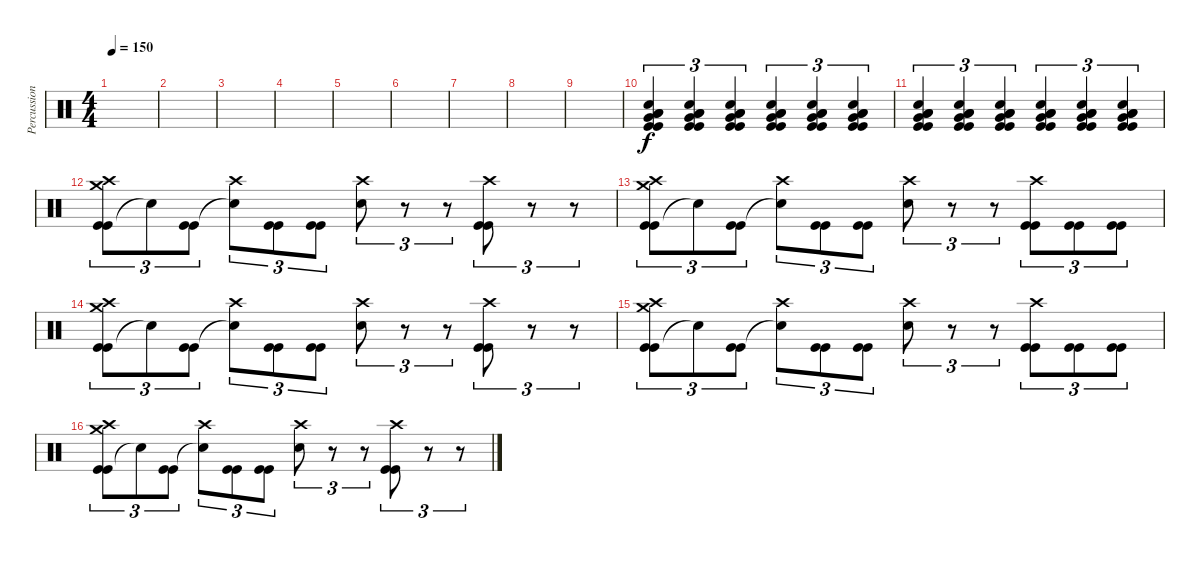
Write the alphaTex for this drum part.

\track ("Percussion" "Percussion") {instrument percussion}
\staff {score}
\articulation defaults
\ts (4 4)
\tempo 150
\clef neutral
\ks c
|
|
|
|
|
|
|
|
|
("Very Low Tom (hit)" "Snare (hit) 2" "Kick (hit)" "Kick (hit)" "Low Floor Tom (hit)" "Low Floor Tom (hit)").4{tu (3 2)} ("Very Low Tom (hit)" "Snare (hit) 2" "Kick (hit)" "Kick (hit)" "Low Floor Tom (hit)" "Low Floor Tom (hit)").4{tu (3 2)} ("Very Low Tom (hit)" "Snare (hit) 2" "Kick (hit)" "Kick (hit)" "Low Floor Tom (hit)" "Low Floor Tom (hit)").4{tu (3 2)} ("Very Low Tom (hit)" "Snare (hit) 2" "Kick (hit)" "Kick (hit)" "Low Floor Tom (hit)" "Low Floor Tom (hit)").4{tu (3 2)} ("Very Low Tom (hit)" "Snare (hit) 2" "Kick (hit)" "Kick (hit)" "Low Floor Tom (hit)" "Low Floor Tom (hit)").4{tu (3 2)} ("Very Low Tom (hit)" "Snare (hit) 2" "Kick (hit)" "Kick (hit)" "Low Floor Tom (hit)" "Low Floor Tom (hit)").4{tu (3 2)} |
("Very Low Tom (hit)" "Snare (hit) 2" "Kick (hit)" "Kick (hit)" "Low Floor Tom (hit)" "Low Floor Tom (hit)").4{tu (3 2)} ("Very Low Tom (hit)" "Snare (hit) 2" "Kick (hit)" "Kick (hit)" "Low Floor Tom (hit)" "Low Floor Tom (hit)").4{tu (3 2)} ("Very Low Tom (hit)" "Snare (hit) 2" "Kick (hit)" "Kick (hit)" "Low Floor Tom (hit)" "Low Floor Tom (hit)").4{tu (3 2)} ("Very Low Tom (hit)" "Snare (hit) 2" "Kick (hit)" "Kick (hit)" "Low Floor Tom (hit)" "Low Floor Tom (hit)").4{tu (3 2)} ("Very Low Tom (hit)" "Snare (hit) 2" "Kick (hit)" "Kick (hit)" "Low Floor Tom (hit)" "Low Floor Tom (hit)").4{tu (3 2)} ("Very Low Tom (hit)" "Snare (hit) 2" "Kick (hit)" "Kick (hit)" "Low Floor Tom (hit)" "Low Floor Tom (hit)").4{tu (3 2)} |
("Kick (hit)" "Crash medium (hit)" "Crash high (hit)" "Kick (hit)").8{tu (3 2)} "Snare (hit)"{t}.8{tu (3 2)} ("Kick (hit)" "Kick (hit)").8{tu (3 2)} ("Crash high (hit)" "Snare (hit)"{t}).8{tu (3 2)} ("Kick (hit)" "Kick (hit)").8{tu (3 2)} ("Kick (hit)" "Kick (hit)").8{tu (3 2)} ("Crash high (hit)" "Snare (hit) 2").8{tu (3 2)} r.8{tu (3 2)} r.8{tu (3 2)} ("Crash high (hit)" "Kick (hit)" "Kick (hit)").8{tu (3 2)} r.8{tu (3 2)} r.8{tu (3 2)} |
("Kick (hit)" "Crash medium (hit)" "Crash high (hit)" "Kick (hit)").8{tu (3 2)} "Snare (hit)"{t}.8{tu (3 2)} ("Kick (hit)" "Kick (hit)").8{tu (3 2)} ("Crash high (hit)" "Snare (hit)"{t}).8{tu (3 2)} ("Kick (hit)" "Kick (hit)").8{tu (3 2)} ("Kick (hit)" "Kick (hit)").8{tu (3 2)} ("Crash high (hit)" "Snare (hit) 2").8{tu (3 2)} r.8{tu (3 2)} r.8{tu (3 2)} ("Crash high (hit)" "Kick (hit)" "Kick (hit)").8{tu (3 2)} ("Kick (hit)" "Kick (hit)").8{tu (3 2)} ("Kick (hit)" "Kick (hit)").8{tu (3 2)} |
("Kick (hit)" "Crash medium (hit)" "Crash high (hit)" "Kick (hit)").8{tu (3 2)} "Snare (hit)"{t}.8{tu (3 2)} ("Kick (hit)" "Kick (hit)").8{tu (3 2)} ("Crash high (hit)" "Snare (hit)"{t}).8{tu (3 2)} ("Kick (hit)" "Kick (hit)").8{tu (3 2)} ("Kick (hit)" "Kick (hit)").8{tu (3 2)} ("Crash high (hit)" "Snare (hit) 2").8{tu (3 2)} r.8{tu (3 2)} r.8{tu (3 2)} ("Crash high (hit)" "Kick (hit)" "Kick (hit)").8{tu (3 2)} r.8{tu (3 2)} r.8{tu (3 2)} |
("Kick (hit)" "Crash medium (hit)" "Crash high (hit)" "Kick (hit)").8{tu (3 2)} "Snare (hit)"{t}.8{tu (3 2)} ("Kick (hit)" "Kick (hit)").8{tu (3 2)} ("Crash high (hit)" "Snare (hit)"{t}).8{tu (3 2)} ("Kick (hit)" "Kick (hit)").8{tu (3 2)} ("Kick (hit)" "Kick (hit)").8{tu (3 2)} ("Crash high (hit)" "Snare (hit) 2").8{tu (3 2)} r.8{tu (3 2)} r.8{tu (3 2)} ("Crash high (hit)" "Kick (hit)" "Kick (hit)").8{tu (3 2)} ("Kick (hit)" "Kick (hit)").8{tu (3 2)} ("Kick (hit)" "Kick (hit)").8{tu (3 2)} |
("Kick (hit)" "Crash medium (hit)" "Crash high (hit)" "Kick (hit)").8{tu (3 2)} "Snare (hit)"{t}.8{tu (3 2)} ("Kick (hit)" "Kick (hit)").8{tu (3 2)} ("Crash high (hit)" "Snare (hit)"{t}).8{tu (3 2)} ("Kick (hit)" "Kick (hit)").8{tu (3 2)} ("Kick (hit)" "Kick (hit)").8{tu (3 2)} ("Crash high (hit)" "Snare (hit) 2").8{tu (3 2)} r.8{tu (3 2)} r.8{tu (3 2)} ("Crash high (hit)" "Kick (hit)" "Kick (hit)").8{tu (3 2)} r.8{tu (3 2)} r.8{tu (3 2)}
